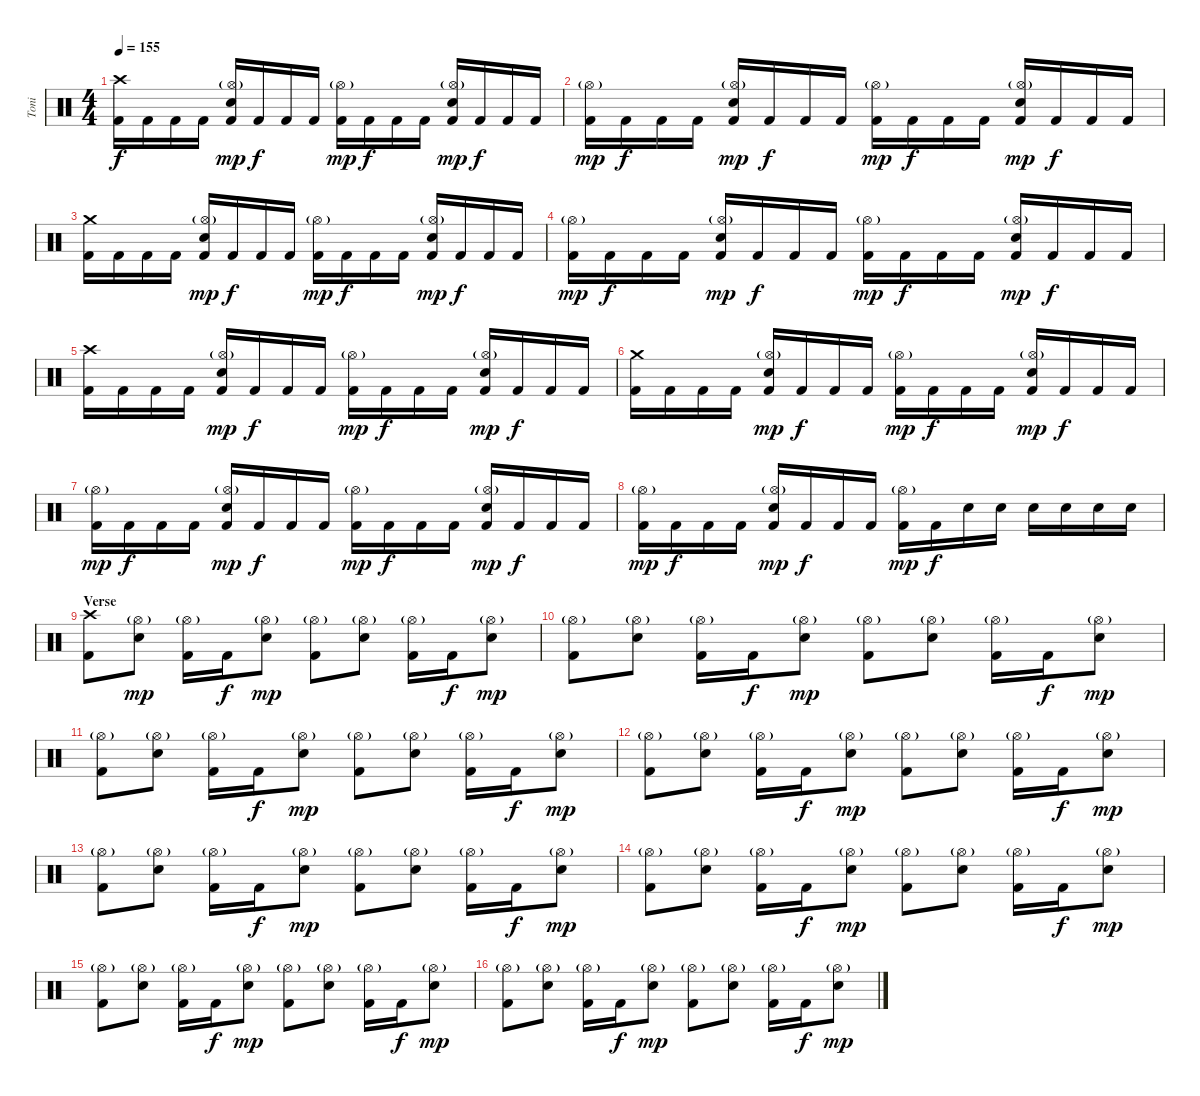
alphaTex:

\track ("Toni" "Toni") {instrument percussion}
\staff {score}
\articulation defaults
\ts (4 4)
\tempo 155
\clef neutral
\ks c
("Crash high (hit)" "Kick (hit) 2").16{dy f} "Kick (hit) 2".16 "Kick (hit) 2".16 "Kick (hit) 2".16 ("Hi-Hat (open)"{g} "Electric Snare (hit)" "Kick (hit) 2").16{dy mp} "Kick (hit) 2".16{dy f} "Kick (hit) 2".16 "Kick (hit) 2".16 ("Hi-Hat (open)"{g} "Kick (hit) 2").16{dy mp} "Kick (hit) 2".16{dy f} "Kick (hit) 2".16 "Kick (hit) 2".16 ("Hi-Hat (open)"{g} "Electric Snare (hit)" "Kick (hit) 2").16{dy mp} "Kick (hit) 2".16{dy f} "Kick (hit) 2".16 "Kick (hit) 2".16 |
("Hi-Hat (open)"{g} "Kick (hit) 2").16{dy mp} "Kick (hit) 2".16{dy f} "Kick (hit) 2".16 "Kick (hit) 2".16 ("Hi-Hat (open)"{g} "Electric Snare (hit)" "Kick (hit) 2").16{dy mp} "Kick (hit) 2".16{dy f} "Kick (hit) 2".16 "Kick (hit) 2".16 ("Hi-Hat (open)"{g} "Kick (hit) 2").16{dy mp} "Kick (hit) 2".16{dy f} "Kick (hit) 2".16 "Kick (hit) 2".16 ("Hi-Hat (open)"{g} "Electric Snare (hit)" "Kick (hit) 2").16{dy mp} "Kick (hit) 2".16{dy f} "Kick (hit) 2".16 "Kick (hit) 2".16 |
("Crash medium (hit)" "Kick (hit) 2").16 "Kick (hit) 2".16 "Kick (hit) 2".16 "Kick (hit) 2".16 ("Hi-Hat (open)"{g} "Electric Snare (hit)" "Kick (hit) 2").16{dy mp} "Kick (hit) 2".16{dy f} "Kick (hit) 2".16 "Kick (hit) 2".16 ("Hi-Hat (open)"{g} "Kick (hit) 2").16{dy mp} "Kick (hit) 2".16{dy f} "Kick (hit) 2".16 "Kick (hit) 2".16 ("Hi-Hat (open)"{g} "Electric Snare (hit)" "Kick (hit) 2").16{dy mp} "Kick (hit) 2".16{dy f} "Kick (hit) 2".16 "Kick (hit) 2".16 |
("Hi-Hat (open)"{g} "Kick (hit) 2").16{dy mp} "Kick (hit) 2".16{dy f} "Kick (hit) 2".16 "Kick (hit) 2".16 ("Hi-Hat (open)"{g} "Electric Snare (hit)" "Kick (hit) 2").16{dy mp} "Kick (hit) 2".16{dy f} "Kick (hit) 2".16 "Kick (hit) 2".16 ("Hi-Hat (open)"{g} "Kick (hit) 2").16{dy mp} "Kick (hit) 2".16{dy f} "Kick (hit) 2".16 "Kick (hit) 2".16 ("Hi-Hat (open)"{g} "Electric Snare (hit)" "Kick (hit) 2").16{dy mp} "Kick (hit) 2".16{dy f} "Kick (hit) 2".16 "Kick (hit) 2".16 |
("Crash high (hit)" "Kick (hit) 2").16 "Kick (hit) 2".16 "Kick (hit) 2".16 "Kick (hit) 2".16 ("Hi-Hat (open)"{g} "Electric Snare (hit)" "Kick (hit) 2").16{dy mp} "Kick (hit) 2".16{dy f} "Kick (hit) 2".16 "Kick (hit) 2".16 ("Hi-Hat (open)"{g} "Kick (hit) 2").16{dy mp} "Kick (hit) 2".16{dy f} "Kick (hit) 2".16 "Kick (hit) 2".16 ("Hi-Hat (open)"{g} "Electric Snare (hit)" "Kick (hit) 2").16{dy mp} "Kick (hit) 2".16{dy f} "Kick (hit) 2".16 "Kick (hit) 2".16 |
("Crash medium (hit)" "Kick (hit) 2").16 "Kick (hit) 2".16 "Kick (hit) 2".16 "Kick (hit) 2".16 ("Hi-Hat (open)"{g} "Electric Snare (hit)" "Kick (hit) 2").16{dy mp} "Kick (hit) 2".16{dy f} "Kick (hit) 2".16 "Kick (hit) 2".16 ("Hi-Hat (open)"{g} "Kick (hit) 2").16{dy mp} "Kick (hit) 2".16{dy f} "Kick (hit) 2".16 "Kick (hit) 2".16 ("Hi-Hat (open)"{g} "Electric Snare (hit)" "Kick (hit) 2").16{dy mp} "Kick (hit) 2".16{dy f} "Kick (hit) 2".16 "Kick (hit) 2".16 |
("Hi-Hat (open)"{g} "Kick (hit) 2").16{dy mp} "Kick (hit) 2".16{dy f} "Kick (hit) 2".16 "Kick (hit) 2".16 ("Hi-Hat (open)"{g} "Electric Snare (hit)" "Kick (hit) 2").16{dy mp} "Kick (hit) 2".16{dy f} "Kick (hit) 2".16 "Kick (hit) 2".16 ("Hi-Hat (open)"{g} "Kick (hit) 2").16{dy mp} "Kick (hit) 2".16{dy f} "Kick (hit) 2".16 "Kick (hit) 2".16 ("Hi-Hat (open)"{g} "Electric Snare (hit)" "Kick (hit) 2").16{dy mp} "Kick (hit) 2".16{dy f} "Kick (hit) 2".16 "Kick (hit) 2".16 |
("Hi-Hat (open)"{g} "Kick (hit) 2").16{dy mp} "Kick (hit) 2".16{dy f} "Kick (hit) 2".16 "Kick (hit) 2".16 ("Hi-Hat (open)"{g} "Electric Snare (hit)" "Kick (hit) 2").16{dy mp} "Kick (hit) 2".16{dy f} "Kick (hit) 2".16 "Kick (hit) 2".16 ("Hi-Hat (open)"{g} "Kick (hit) 2").16{dy mp} "Kick (hit) 2".16{dy f} "Electric Snare (hit)".16 "Electric Snare (hit)".16 "Electric Snare (hit)".16 "Electric Snare (hit)".16 "Electric Snare (hit)".16 "Electric Snare (hit)".16 |
\section ("" "Verse")
("Crash high (hit)" "Kick (hit) 2").8 ("Hi-Hat (open)"{g} "Electric Snare (hit)").8{dy mp} ("Hi-Hat (open)"{g} "Kick (hit) 2").16 "Kick (hit) 2".16{dy f} ("Hi-Hat (open)"{g} "Electric Snare (hit)").8{dy mp} ("Hi-Hat (open)"{g} "Kick (hit) 2").8 ("Hi-Hat (open)"{g} "Electric Snare (hit)").8 ("Hi-Hat (open)"{g} "Kick (hit) 2").16 "Kick (hit) 2".16{dy f} ("Hi-Hat (open)"{g} "Electric Snare (hit)").8{dy mp} |
("Hi-Hat (open)"{g} "Kick (hit) 2").8 ("Hi-Hat (open)"{g} "Electric Snare (hit)").8 ("Hi-Hat (open)"{g} "Kick (hit) 2").16 "Kick (hit) 2".16{dy f} ("Hi-Hat (open)"{g} "Electric Snare (hit)").8{dy mp} ("Hi-Hat (open)"{g} "Kick (hit) 2").8 ("Hi-Hat (open)"{g} "Electric Snare (hit)").8 ("Hi-Hat (open)"{g} "Kick (hit) 2").16 "Kick (hit) 2".16{dy f} ("Hi-Hat (open)"{g} "Electric Snare (hit)").8{dy mp} |
("Hi-Hat (open)"{g} "Kick (hit) 2").8 ("Hi-Hat (open)"{g} "Electric Snare (hit)").8 ("Hi-Hat (open)"{g} "Kick (hit) 2").16 "Kick (hit) 2".16{dy f} ("Hi-Hat (open)"{g} "Electric Snare (hit)").8{dy mp} ("Hi-Hat (open)"{g} "Kick (hit) 2").8 ("Hi-Hat (open)"{g} "Electric Snare (hit)").8 ("Hi-Hat (open)"{g} "Kick (hit) 2").16 "Kick (hit) 2".16{dy f} ("Hi-Hat (open)"{g} "Electric Snare (hit)").8{dy mp} |
("Hi-Hat (open)"{g} "Kick (hit) 2").8 ("Hi-Hat (open)"{g} "Electric Snare (hit)").8 ("Hi-Hat (open)"{g} "Kick (hit) 2").16 "Kick (hit) 2".16{dy f} ("Hi-Hat (open)"{g} "Electric Snare (hit)").8{dy mp} ("Hi-Hat (open)"{g} "Kick (hit) 2").8 ("Hi-Hat (open)"{g} "Electric Snare (hit)").8 ("Hi-Hat (open)"{g} "Kick (hit) 2").16 "Kick (hit) 2".16{dy f} ("Hi-Hat (open)"{g} "Electric Snare (hit)").8{dy mp} |
("Hi-Hat (open)"{g} "Kick (hit) 2").8 ("Hi-Hat (open)"{g} "Electric Snare (hit)").8 ("Hi-Hat (open)"{g} "Kick (hit) 2").16 "Kick (hit) 2".16{dy f} ("Hi-Hat (open)"{g} "Electric Snare (hit)").8{dy mp} ("Hi-Hat (open)"{g} "Kick (hit) 2").8 ("Hi-Hat (open)"{g} "Electric Snare (hit)").8 ("Hi-Hat (open)"{g} "Kick (hit) 2").16 "Kick (hit) 2".16{dy f} ("Hi-Hat (open)"{g} "Electric Snare (hit)").8{dy mp} |
("Hi-Hat (open)"{g} "Kick (hit) 2").8 ("Hi-Hat (open)"{g} "Electric Snare (hit)").8 ("Hi-Hat (open)"{g} "Kick (hit) 2").16 "Kick (hit) 2".16{dy f} ("Hi-Hat (open)"{g} "Electric Snare (hit)").8{dy mp} ("Hi-Hat (open)"{g} "Kick (hit) 2").8 ("Hi-Hat (open)"{g} "Electric Snare (hit)").8 ("Hi-Hat (open)"{g} "Kick (hit) 2").16 "Kick (hit) 2".16{dy f} ("Hi-Hat (open)"{g} "Electric Snare (hit)").8{dy mp} |
("Hi-Hat (open)"{g} "Kick (hit) 2").8 ("Hi-Hat (open)"{g} "Electric Snare (hit)").8 ("Hi-Hat (open)"{g} "Kick (hit) 2").16 "Kick (hit) 2".16{dy f} ("Hi-Hat (open)"{g} "Electric Snare (hit)").8{dy mp} ("Hi-Hat (open)"{g} "Kick (hit) 2").8 ("Hi-Hat (open)"{g} "Electric Snare (hit)").8 ("Hi-Hat (open)"{g} "Kick (hit) 2").16 "Kick (hit) 2".16{dy f} ("Hi-Hat (open)"{g} "Electric Snare (hit)").8{dy mp} |
("Hi-Hat (open)"{g} "Kick (hit) 2").8 ("Hi-Hat (open)"{g} "Electric Snare (hit)").8 ("Hi-Hat (open)"{g} "Kick (hit) 2").16 "Kick (hit) 2".16{dy f} ("Hi-Hat (open)"{g} "Electric Snare (hit)").8{dy mp} ("Hi-Hat (open)"{g} "Kick (hit) 2").8 ("Hi-Hat (open)"{g} "Electric Snare (hit)").8 ("Hi-Hat (open)"{g} "Kick (hit) 2").16 "Kick (hit) 2".16{dy f} ("Hi-Hat (open)"{g} "Electric Snare (hit)").8{dy mp}
